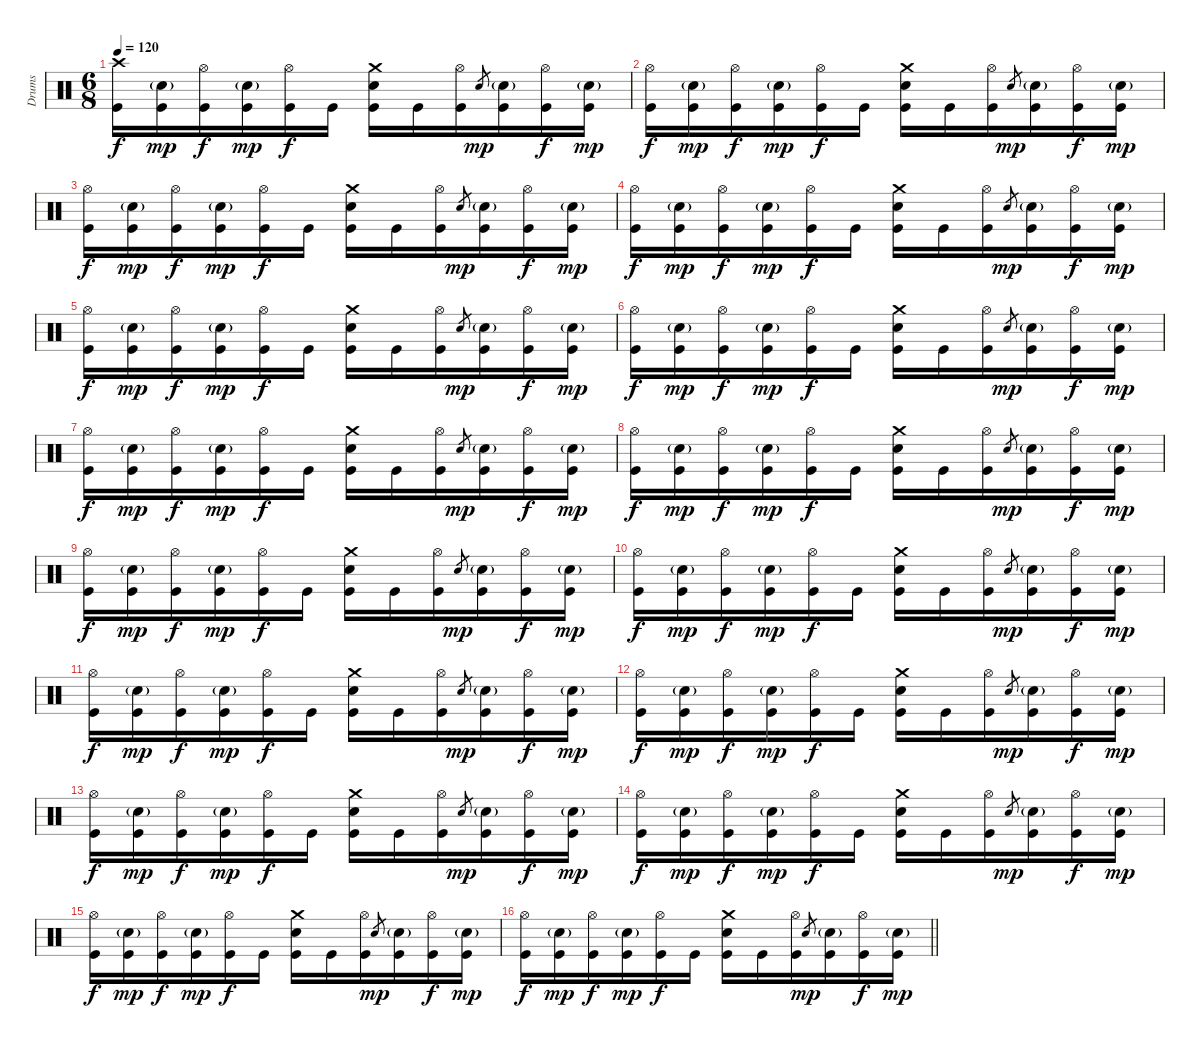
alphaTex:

\track ("Drums" "Drums") {instrument percussion}
\staff {score}
\articulation defaults
\ts (6 8)
\tempo 120
\clef neutral
\ks c
("Kick (hit)" "Crash high (hit)").16{dy f} ("Kick (hit)" "Electric Snare (hit)"{g}).16{dy mp} ("Kick (hit)" "Hi-Hat (open)").16{dy f} ("Kick (hit)" "Electric Snare (hit)"{g}).16{dy mp} ("Kick (hit)" "Hi-Hat (open)").16{dy f} "Kick (hit)".16 ("Kick (hit)" "Electric Snare (hit)" "Crash medium (hit)").16 "Kick (hit)".16 ("Kick (hit)" "Hi-Hat (open)").16 "Electric Snare (hit)".8{gr dy mp} ("Kick (hit)" "Electric Snare (hit)"{g}).16 ("Kick (hit)" "Hi-Hat (open)").16{dy f} ("Kick (hit)" "Electric Snare (hit)"{g}).16{dy mp} |
("Kick (hit)" "Hi-Hat (open)").16{dy f} ("Kick (hit)" "Electric Snare (hit)"{g}).16{dy mp} ("Kick (hit)" "Hi-Hat (open)").16{dy f} ("Kick (hit)" "Electric Snare (hit)"{g}).16{dy mp} ("Kick (hit)" "Hi-Hat (open)").16{dy f} "Kick (hit)".16 ("Kick (hit)" "Electric Snare (hit)" "Crash medium (hit)").16 "Kick (hit)".16 ("Kick (hit)" "Hi-Hat (open)").16 "Electric Snare (hit)".8{gr dy mp} ("Kick (hit)" "Electric Snare (hit)"{g}).16 ("Kick (hit)" "Hi-Hat (open)").16{dy f} ("Kick (hit)" "Electric Snare (hit)"{g}).16{dy mp} |
("Kick (hit)" "Hi-Hat (open)").16{dy f} ("Kick (hit)" "Electric Snare (hit)"{g}).16{dy mp} ("Kick (hit)" "Hi-Hat (open)").16{dy f} ("Kick (hit)" "Electric Snare (hit)"{g}).16{dy mp} ("Kick (hit)" "Hi-Hat (open)").16{dy f} "Kick (hit)".16 ("Kick (hit)" "Electric Snare (hit)" "Crash medium (hit)").16 "Kick (hit)".16 ("Kick (hit)" "Hi-Hat (open)").16 "Electric Snare (hit)".8{gr dy mp} ("Kick (hit)" "Electric Snare (hit)"{g}).16 ("Kick (hit)" "Hi-Hat (open)").16{dy f} ("Kick (hit)" "Electric Snare (hit)"{g}).16{dy mp} |
("Kick (hit)" "Hi-Hat (open)").16{dy f} ("Kick (hit)" "Electric Snare (hit)"{g}).16{dy mp} ("Kick (hit)" "Hi-Hat (open)").16{dy f} ("Kick (hit)" "Electric Snare (hit)"{g}).16{dy mp} ("Kick (hit)" "Hi-Hat (open)").16{dy f} "Kick (hit)".16 ("Kick (hit)" "Electric Snare (hit)" "Crash medium (hit)").16 "Kick (hit)".16 ("Kick (hit)" "Hi-Hat (open)").16 "Electric Snare (hit)".8{gr dy mp} ("Kick (hit)" "Electric Snare (hit)"{g}).16 ("Kick (hit)" "Hi-Hat (open)").16{dy f} ("Kick (hit)" "Electric Snare (hit)"{g}).16{dy mp} |
("Kick (hit)" "Hi-Hat (open)").16{dy f} ("Kick (hit)" "Electric Snare (hit)"{g}).16{dy mp} ("Kick (hit)" "Hi-Hat (open)").16{dy f} ("Kick (hit)" "Electric Snare (hit)"{g}).16{dy mp} ("Kick (hit)" "Hi-Hat (open)").16{dy f} "Kick (hit)".16 ("Kick (hit)" "Electric Snare (hit)" "Crash medium (hit)").16 "Kick (hit)".16 ("Kick (hit)" "Hi-Hat (open)").16 "Electric Snare (hit)".8{gr dy mp} ("Kick (hit)" "Electric Snare (hit)"{g}).16 ("Kick (hit)" "Hi-Hat (open)").16{dy f} ("Kick (hit)" "Electric Snare (hit)"{g}).16{dy mp} |
("Kick (hit)" "Hi-Hat (open)").16{dy f} ("Kick (hit)" "Electric Snare (hit)"{g}).16{dy mp} ("Kick (hit)" "Hi-Hat (open)").16{dy f} ("Kick (hit)" "Electric Snare (hit)"{g}).16{dy mp} ("Kick (hit)" "Hi-Hat (open)").16{dy f} "Kick (hit)".16 ("Kick (hit)" "Electric Snare (hit)" "Crash medium (hit)").16 "Kick (hit)".16 ("Kick (hit)" "Hi-Hat (open)").16 "Electric Snare (hit)".8{gr dy mp} ("Kick (hit)" "Electric Snare (hit)"{g}).16 ("Kick (hit)" "Hi-Hat (open)").16{dy f} ("Kick (hit)" "Electric Snare (hit)"{g}).16{dy mp} |
("Kick (hit)" "Hi-Hat (open)").16{dy f} ("Kick (hit)" "Electric Snare (hit)"{g}).16{dy mp} ("Kick (hit)" "Hi-Hat (open)").16{dy f} ("Kick (hit)" "Electric Snare (hit)"{g}).16{dy mp} ("Kick (hit)" "Hi-Hat (open)").16{dy f} "Kick (hit)".16 ("Kick (hit)" "Electric Snare (hit)" "Crash medium (hit)").16 "Kick (hit)".16 ("Kick (hit)" "Hi-Hat (open)").16 "Electric Snare (hit)".8{gr dy mp} ("Kick (hit)" "Electric Snare (hit)"{g}).16 ("Kick (hit)" "Hi-Hat (open)").16{dy f} ("Kick (hit)" "Electric Snare (hit)"{g}).16{dy mp} |
("Kick (hit)" "Hi-Hat (open)").16{dy f} ("Kick (hit)" "Electric Snare (hit)"{g}).16{dy mp} ("Kick (hit)" "Hi-Hat (open)").16{dy f} ("Kick (hit)" "Electric Snare (hit)"{g}).16{dy mp} ("Kick (hit)" "Hi-Hat (open)").16{dy f} "Kick (hit)".16 ("Kick (hit)" "Electric Snare (hit)" "Crash medium (hit)").16 "Kick (hit)".16 ("Kick (hit)" "Hi-Hat (open)").16 "Electric Snare (hit)".8{gr dy mp} ("Kick (hit)" "Electric Snare (hit)"{g}).16 ("Kick (hit)" "Hi-Hat (open)").16{dy f} ("Kick (hit)" "Electric Snare (hit)"{g}).16{dy mp} |
("Kick (hit)" "Hi-Hat (open)").16{dy f} ("Kick (hit)" "Electric Snare (hit)"{g}).16{dy mp} ("Kick (hit)" "Hi-Hat (open)").16{dy f} ("Kick (hit)" "Electric Snare (hit)"{g}).16{dy mp} ("Kick (hit)" "Hi-Hat (open)").16{dy f} "Kick (hit)".16 ("Kick (hit)" "Electric Snare (hit)" "Crash medium (hit)").16 "Kick (hit)".16 ("Kick (hit)" "Hi-Hat (open)").16 "Electric Snare (hit)".8{gr dy mp} ("Kick (hit)" "Electric Snare (hit)"{g}).16 ("Kick (hit)" "Hi-Hat (open)").16{dy f} ("Kick (hit)" "Electric Snare (hit)"{g}).16{dy mp} |
("Kick (hit)" "Hi-Hat (open)").16{dy f} ("Kick (hit)" "Electric Snare (hit)"{g}).16{dy mp} ("Kick (hit)" "Hi-Hat (open)").16{dy f} ("Kick (hit)" "Electric Snare (hit)"{g}).16{dy mp} ("Kick (hit)" "Hi-Hat (open)").16{dy f} "Kick (hit)".16 ("Kick (hit)" "Electric Snare (hit)" "Crash medium (hit)").16 "Kick (hit)".16 ("Kick (hit)" "Hi-Hat (open)").16 "Electric Snare (hit)".8{gr dy mp} ("Kick (hit)" "Electric Snare (hit)"{g}).16 ("Kick (hit)" "Hi-Hat (open)").16{dy f} ("Kick (hit)" "Electric Snare (hit)"{g}).16{dy mp} |
("Kick (hit)" "Hi-Hat (open)").16{dy f} ("Kick (hit)" "Electric Snare (hit)"{g}).16{dy mp} ("Kick (hit)" "Hi-Hat (open)").16{dy f} ("Kick (hit)" "Electric Snare (hit)"{g}).16{dy mp} ("Kick (hit)" "Hi-Hat (open)").16{dy f} "Kick (hit)".16 ("Kick (hit)" "Electric Snare (hit)" "Crash medium (hit)").16 "Kick (hit)".16 ("Kick (hit)" "Hi-Hat (open)").16 "Electric Snare (hit)".8{gr dy mp} ("Kick (hit)" "Electric Snare (hit)"{g}).16 ("Kick (hit)" "Hi-Hat (open)").16{dy f} ("Kick (hit)" "Electric Snare (hit)"{g}).16{dy mp} |
("Kick (hit)" "Hi-Hat (open)").16{dy f} ("Kick (hit)" "Electric Snare (hit)"{g}).16{dy mp} ("Kick (hit)" "Hi-Hat (open)").16{dy f} ("Kick (hit)" "Electric Snare (hit)"{g}).16{dy mp} ("Kick (hit)" "Hi-Hat (open)").16{dy f} "Kick (hit)".16 ("Kick (hit)" "Electric Snare (hit)" "Crash medium (hit)").16 "Kick (hit)".16 ("Kick (hit)" "Hi-Hat (open)").16 "Electric Snare (hit)".8{gr dy mp} ("Kick (hit)" "Electric Snare (hit)"{g}).16 ("Kick (hit)" "Hi-Hat (open)").16{dy f} ("Kick (hit)" "Electric Snare (hit)"{g}).16{dy mp} |
("Kick (hit)" "Hi-Hat (open)").16{dy f} ("Kick (hit)" "Electric Snare (hit)"{g}).16{dy mp} ("Kick (hit)" "Hi-Hat (open)").16{dy f} ("Kick (hit)" "Electric Snare (hit)"{g}).16{dy mp} ("Kick (hit)" "Hi-Hat (open)").16{dy f} "Kick (hit)".16 ("Kick (hit)" "Electric Snare (hit)" "Crash medium (hit)").16 "Kick (hit)".16 ("Kick (hit)" "Hi-Hat (open)").16 "Electric Snare (hit)".8{gr dy mp} ("Kick (hit)" "Electric Snare (hit)"{g}).16 ("Kick (hit)" "Hi-Hat (open)").16{dy f} ("Kick (hit)" "Electric Snare (hit)"{g}).16{dy mp} |
("Kick (hit)" "Hi-Hat (open)").16{dy f} ("Kick (hit)" "Electric Snare (hit)"{g}).16{dy mp} ("Kick (hit)" "Hi-Hat (open)").16{dy f} ("Kick (hit)" "Electric Snare (hit)"{g}).16{dy mp} ("Kick (hit)" "Hi-Hat (open)").16{dy f} "Kick (hit)".16 ("Kick (hit)" "Electric Snare (hit)" "Crash medium (hit)").16 "Kick (hit)".16 ("Kick (hit)" "Hi-Hat (open)").16 "Electric Snare (hit)".8{gr dy mp} ("Kick (hit)" "Electric Snare (hit)"{g}).16 ("Kick (hit)" "Hi-Hat (open)").16{dy f} ("Kick (hit)" "Electric Snare (hit)"{g}).16{dy mp} |
("Kick (hit)" "Hi-Hat (open)").16{dy f} ("Kick (hit)" "Electric Snare (hit)"{g}).16{dy mp} ("Kick (hit)" "Hi-Hat (open)").16{dy f} ("Kick (hit)" "Electric Snare (hit)"{g}).16{dy mp} ("Kick (hit)" "Hi-Hat (open)").16{dy f} "Kick (hit)".16 ("Kick (hit)" "Electric Snare (hit)" "Crash medium (hit)").16 "Kick (hit)".16 ("Kick (hit)" "Hi-Hat (open)").16 "Electric Snare (hit)".8{gr dy mp} ("Kick (hit)" "Electric Snare (hit)"{g}).16 ("Kick (hit)" "Hi-Hat (open)").16{dy f} ("Kick (hit)" "Electric Snare (hit)"{g}).16{dy mp} |
\barLineRight lightlight
("Kick (hit)" "Hi-Hat (open)").16{dy f} ("Kick (hit)" "Electric Snare (hit)"{g}).16{dy mp} ("Kick (hit)" "Hi-Hat (open)").16{dy f} ("Kick (hit)" "Electric Snare (hit)"{g}).16{dy mp} ("Kick (hit)" "Hi-Hat (open)").16{dy f} "Kick (hit)".16 ("Kick (hit)" "Electric Snare (hit)" "Crash medium (hit)").16 "Kick (hit)".16 ("Kick (hit)" "Hi-Hat (open)").16 "Electric Snare (hit)".8{gr dy mp} ("Kick (hit)" "Electric Snare (hit)"{g}).16 ("Kick (hit)" "Hi-Hat (open)").16{dy f} ("Kick (hit)" "Electric Snare (hit)"{g}).16{dy mp}
